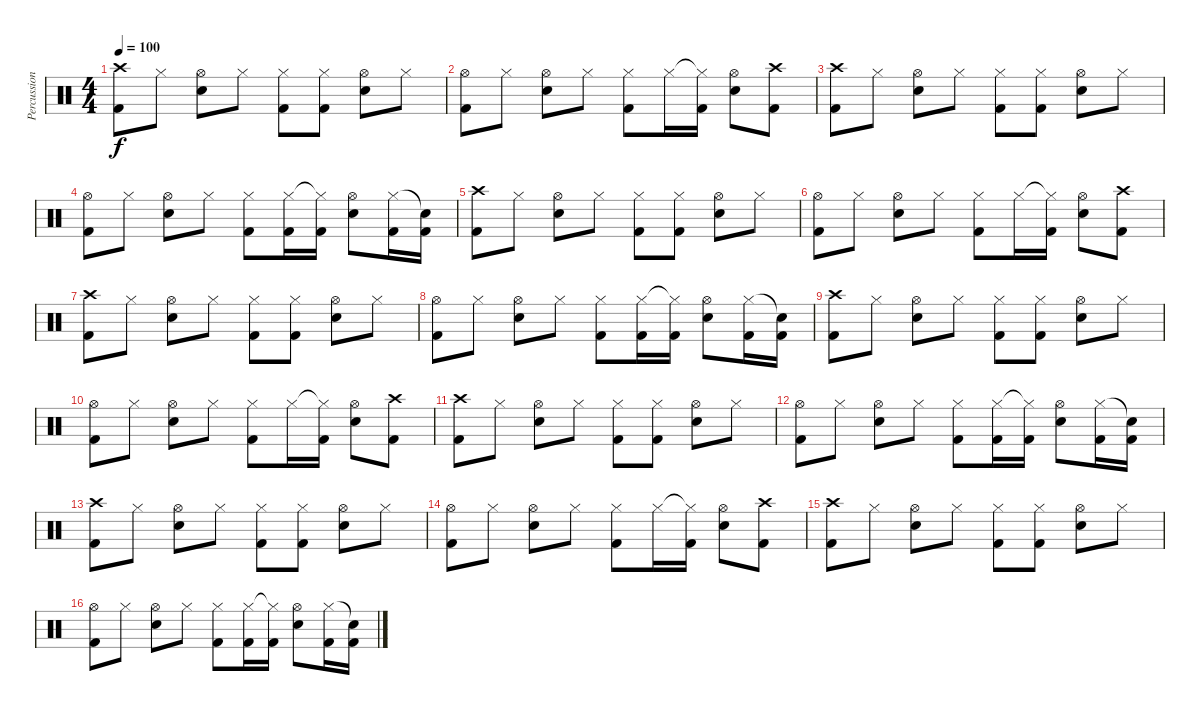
\track ("Percussions" "Percussion") {instrument percussion}
\staff {score}
\articulation defaults
\ts (4 4)
\tempo 100
\clef neutral
\ks c
("Crash high (hit)" "Kick (hit) 2").8{dy f} "Hi-Hat (closed)".8 ("Hi-Hat (open)" "Snare (hit) 2").8 "Hi-Hat (closed)".8 ("Hi-Hat (closed)" "Kick (hit) 2").8 ("Hi-Hat (closed)" "Kick (hit) 2").8 ("Hi-Hat (open)" "Snare (hit) 2").8 "Hi-Hat (closed)".8 |
("Hi-Hat (open)" "Kick (hit) 2").8 "Hi-Hat (closed)".8 ("Hi-Hat (open)" "Snare (hit) 2").8 "Hi-Hat (closed)".8 ("Hi-Hat (closed)" "Kick (hit) 2").8 "Hi-Hat (closed)".16 ("Hi-Hat (closed)"{t} "Kick (hit) 2").16 ("Hi-Hat (open)" "Snare (hit) 2").8 ("Crash high (hit)" "Kick (hit) 2").8 |
("Crash high (hit)" "Kick (hit) 2").8 "Hi-Hat (closed)".8 ("Hi-Hat (open)" "Snare (hit) 2").8 "Hi-Hat (closed)".8 ("Hi-Hat (closed)" "Kick (hit) 2").8 ("Hi-Hat (closed)" "Kick (hit) 2").8 ("Hi-Hat (open)" "Snare (hit) 2").8 "Hi-Hat (closed)".8 |
("Hi-Hat (open)" "Kick (hit) 2").8 "Hi-Hat (closed)".8 ("Hi-Hat (open)" "Snare (hit) 2").8 "Hi-Hat (closed)".8 ("Hi-Hat (closed)" "Kick (hit) 2").8 ("Hi-Hat (closed)" "Kick (hit) 2").16 ("Hi-Hat (closed)"{t} "Kick (hit) 2").16 ("Hi-Hat (open)" "Snare (hit) 2").8 ("Hi-Hat (closed)" "Kick (hit) 2").16 ("Snare (hit)"{t} "Kick (hit) 2").16 |
("Crash high (hit)" "Kick (hit) 2").8 "Hi-Hat (closed)".8 ("Hi-Hat (open)" "Snare (hit) 2").8 "Hi-Hat (closed)".8 ("Hi-Hat (closed)" "Kick (hit) 2").8 ("Hi-Hat (closed)" "Kick (hit) 2").8 ("Hi-Hat (open)" "Snare (hit) 2").8 "Hi-Hat (closed)".8 |
("Hi-Hat (open)" "Kick (hit) 2").8 "Hi-Hat (closed)".8 ("Hi-Hat (open)" "Snare (hit) 2").8 "Hi-Hat (closed)".8 ("Hi-Hat (closed)" "Kick (hit) 2").8 "Hi-Hat (closed)".16 ("Hi-Hat (closed)"{t} "Kick (hit) 2").16 ("Hi-Hat (open)" "Snare (hit) 2").8 ("Crash high (hit)" "Kick (hit) 2").8 |
("Crash high (hit)" "Kick (hit) 2").8 "Hi-Hat (closed)".8 ("Hi-Hat (open)" "Snare (hit) 2").8 "Hi-Hat (closed)".8 ("Hi-Hat (closed)" "Kick (hit) 2").8 ("Hi-Hat (closed)" "Kick (hit) 2").8 ("Hi-Hat (open)" "Snare (hit) 2").8 "Hi-Hat (closed)".8 |
("Hi-Hat (open)" "Kick (hit) 2").8 "Hi-Hat (closed)".8 ("Hi-Hat (open)" "Snare (hit) 2").8 "Hi-Hat (closed)".8 ("Hi-Hat (closed)" "Kick (hit) 2").8 ("Hi-Hat (closed)" "Kick (hit) 2").16 ("Hi-Hat (closed)"{t} "Kick (hit) 2").16 ("Hi-Hat (open)" "Snare (hit) 2").8 ("Hi-Hat (closed)" "Kick (hit) 2").16 ("Snare (hit)"{t} "Kick (hit) 2").16 |
("Crash high (hit)" "Kick (hit) 2").8 "Hi-Hat (closed)".8 ("Hi-Hat (open)" "Snare (hit) 2").8 "Hi-Hat (closed)".8 ("Hi-Hat (closed)" "Kick (hit) 2").8 ("Hi-Hat (closed)" "Kick (hit) 2").8 ("Hi-Hat (open)" "Snare (hit) 2").8 "Hi-Hat (closed)".8 |
("Hi-Hat (open)" "Kick (hit) 2").8 "Hi-Hat (closed)".8 ("Hi-Hat (open)" "Snare (hit) 2").8 "Hi-Hat (closed)".8 ("Hi-Hat (closed)" "Kick (hit) 2").8 "Hi-Hat (closed)".16 ("Hi-Hat (closed)"{t} "Kick (hit) 2").16 ("Hi-Hat (open)" "Snare (hit) 2").8 ("Crash high (hit)" "Kick (hit) 2").8 |
("Crash high (hit)" "Kick (hit) 2").8 "Hi-Hat (closed)".8 ("Hi-Hat (open)" "Snare (hit) 2").8 "Hi-Hat (closed)".8 ("Hi-Hat (closed)" "Kick (hit) 2").8 ("Hi-Hat (closed)" "Kick (hit) 2").8 ("Hi-Hat (open)" "Snare (hit) 2").8 "Hi-Hat (closed)".8 |
("Hi-Hat (open)" "Kick (hit) 2").8 "Hi-Hat (closed)".8 ("Hi-Hat (open)" "Snare (hit) 2").8 "Hi-Hat (closed)".8 ("Hi-Hat (closed)" "Kick (hit) 2").8 ("Hi-Hat (closed)" "Kick (hit) 2").16 ("Hi-Hat (closed)"{t} "Kick (hit) 2").16 ("Hi-Hat (open)" "Snare (hit) 2").8 ("Hi-Hat (closed)" "Kick (hit) 2").16 ("Snare (hit)"{t} "Kick (hit) 2").16 |
("Crash high (hit)" "Kick (hit) 2").8 "Hi-Hat (closed)".8 ("Hi-Hat (open)" "Snare (hit) 2").8 "Hi-Hat (closed)".8 ("Hi-Hat (closed)" "Kick (hit) 2").8 ("Hi-Hat (closed)" "Kick (hit) 2").8 ("Hi-Hat (open)" "Snare (hit) 2").8 "Hi-Hat (closed)".8 |
("Hi-Hat (open)" "Kick (hit) 2").8 "Hi-Hat (closed)".8 ("Hi-Hat (open)" "Snare (hit) 2").8 "Hi-Hat (closed)".8 ("Hi-Hat (closed)" "Kick (hit) 2").8 "Hi-Hat (closed)".16 ("Hi-Hat (closed)"{t} "Kick (hit) 2").16 ("Hi-Hat (open)" "Snare (hit) 2").8 ("Crash high (hit)" "Kick (hit) 2").8 |
("Crash high (hit)" "Kick (hit) 2").8 "Hi-Hat (closed)".8 ("Hi-Hat (open)" "Snare (hit) 2").8 "Hi-Hat (closed)".8 ("Hi-Hat (closed)" "Kick (hit) 2").8 ("Hi-Hat (closed)" "Kick (hit) 2").8 ("Hi-Hat (open)" "Snare (hit) 2").8 "Hi-Hat (closed)".8 |
("Hi-Hat (open)" "Kick (hit) 2").8 "Hi-Hat (closed)".8 ("Hi-Hat (open)" "Snare (hit) 2").8 "Hi-Hat (closed)".8 ("Hi-Hat (closed)" "Kick (hit) 2").8 ("Hi-Hat (closed)" "Kick (hit) 2").16 ("Hi-Hat (closed)"{t} "Kick (hit) 2").16 ("Hi-Hat (open)" "Snare (hit) 2").8 ("Hi-Hat (closed)" "Kick (hit) 2").16 ("Snare (hit)"{t} "Kick (hit) 2").16
